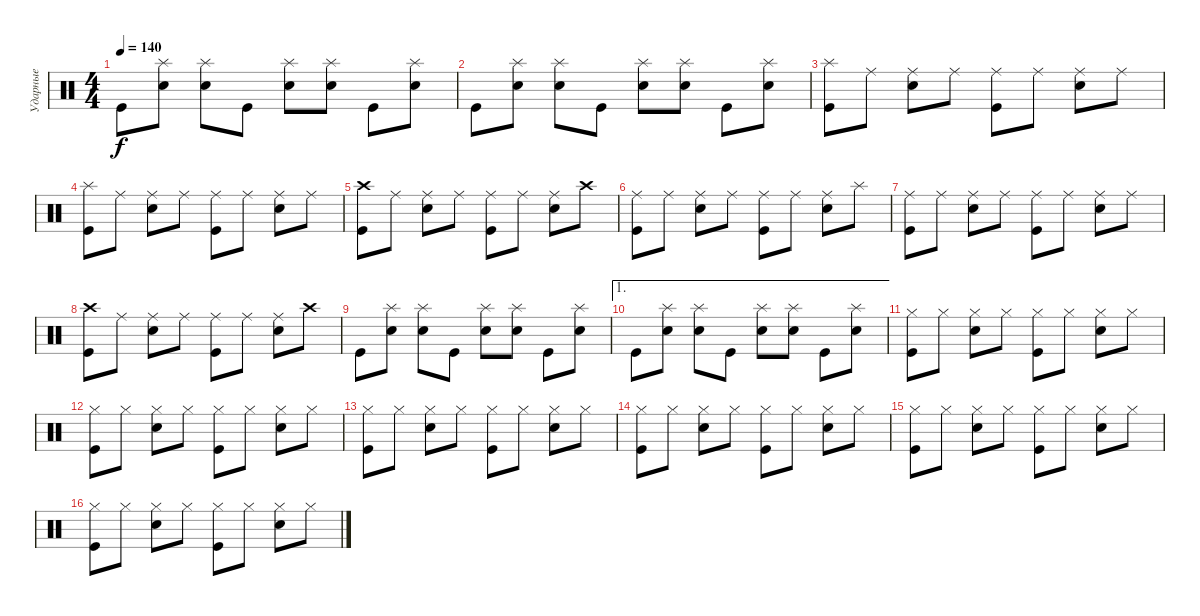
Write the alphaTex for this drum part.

\track ("Ударные" "Ударные") {instrument percussion}
\staff {score}
\articulation defaults
\ts (4 4)
\tempo 140
\clef neutral
\ks c "Kick (hit)".8{dy f}
("Splash (hit)" "Snare (hit) 2").8 ("Splash (hit)" "Snare (hit) 2").8 "Kick (hit)".8 ("Splash (hit)" "Snare (hit) 2").8 ("Splash (hit)" "Snare (hit) 2").8 "Kick (hit)".8 ("Splash (hit)" "Snare (hit) 2").8 |
"Kick (hit)".8 ("Splash (hit)" "Snare (hit) 2").8 ("Splash (hit)" "Snare (hit) 2").8 "Kick (hit)".8 ("Splash (hit)" "Snare (hit) 2").8 ("Splash (hit)" "Snare (hit) 2").8 "Kick (hit)".8 ("Splash (hit)" "Snare (hit) 2").8 |
("Splash (hit)" "Kick (hit)").8 "Ride (middle)".8 ("Ride (middle)" "Snare (hit) 2").8 "Ride (middle)".8 ("Ride (middle)" "Kick (hit)").8 "Ride (middle)".8 ("Ride (middle)" "Snare (hit) 2").8 "Ride (middle)".8 |
("Splash (hit)" "Kick (hit)").8 "Ride (middle)".8 ("Ride (middle)" "Snare (hit) 2").8 "Ride (middle)".8 ("Ride (middle)" "Kick (hit)").8 "Ride (middle)".8 ("Ride (middle)" "Snare (hit) 2").8 "Ride (middle)".8 |
("Crash high (hit)" "Kick (hit)").8 "Ride (middle)".8 ("Ride (middle)" "Snare (hit) 2").8 "Ride (middle)".8 ("Ride (middle)" "Kick (hit)").8 "Ride (middle)".8 ("Ride (middle)" "Snare (hit) 2").8 "Crash high (hit)".8 |
("Ride (middle)" "Kick (hit)").8 "Ride (middle)".8 ("Ride (middle)" "Snare (hit) 2").8 "Ride (middle)".8 ("Ride (middle)" "Kick (hit)").8 "Ride (middle)".8 ("Ride (middle)" "Snare (hit) 2").8 "Splash (hit)".8 |
("Ride (middle)" "Kick (hit)").8 "Ride (middle)".8 ("Ride (middle)" "Snare (hit) 2").8 "Ride (middle)".8 ("Ride (middle)" "Kick (hit)").8 "Ride (middle)".8 ("Ride (middle)" "Snare (hit) 2").8 "Ride (middle)".8 |
("Crash high (hit)" "Kick (hit)").8 "Ride (middle)".8 ("Ride (middle)" "Snare (hit) 2").8 "Ride (middle)".8 ("Ride (middle)" "Kick (hit)").8 "Ride (middle)".8 ("Ride (middle)" "Snare (hit) 2").8 "Crash high (hit)".8 |
"Kick (hit)".8 ("Splash (hit)" "Snare (hit) 2").8 ("Splash (hit)" "Snare (hit) 2").8 "Kick (hit)".8 ("Splash (hit)" "Snare (hit) 2").8 ("Splash (hit)" "Snare (hit) 2").8 "Kick (hit)".8 ("Splash (hit)" "Snare (hit) 2").8 |
\ae 1 "Kick (hit)".8
("Splash (hit)" "Snare (hit) 2").8 ("Splash (hit)" "Snare (hit) 2").8 "Kick (hit)".8 ("Splash (hit)" "Snare (hit) 2").8 ("Splash (hit)" "Snare (hit) 2").8 "Kick (hit)".8 ("Splash (hit)" "Snare (hit) 2").8 |
("Hi-Hat (closed)" "Kick (hit)").8 "Hi-Hat (closed)".8 ("Hi-Hat (closed)" "Snare (hit) 2").8 "Hi-Hat (closed)".8 ("Hi-Hat (closed)" "Kick (hit)").8 "Hi-Hat (closed)".8 ("Hi-Hat (closed)" "Snare (hit) 2").8 "Hi-Hat (closed)".8 |
("Hi-Hat (closed)" "Kick (hit)").8 "Hi-Hat (closed)".8 ("Hi-Hat (closed)" "Snare (hit) 2").8 "Hi-Hat (closed)".8 ("Hi-Hat (closed)" "Kick (hit)").8 "Hi-Hat (closed)".8 ("Hi-Hat (closed)" "Snare (hit) 2").8 "Hi-Hat (closed)".8 |
("Hi-Hat (closed)" "Kick (hit)").8 "Hi-Hat (closed)".8 ("Hi-Hat (closed)" "Snare (hit) 2").8 "Hi-Hat (closed)".8 ("Hi-Hat (closed)" "Kick (hit)").8 "Hi-Hat (closed)".8 ("Hi-Hat (closed)" "Snare (hit) 2").8 "Hi-Hat (closed)".8 |
("Hi-Hat (closed)" "Kick (hit)").8 "Hi-Hat (closed)".8 ("Hi-Hat (closed)" "Snare (hit) 2").8 "Hi-Hat (closed)".8 ("Hi-Hat (closed)" "Kick (hit)").8 "Hi-Hat (closed)".8 ("Hi-Hat (closed)" "Snare (hit) 2").8 "Hi-Hat (closed)".8 |
("Hi-Hat (closed)" "Kick (hit)").8 "Hi-Hat (closed)".8 ("Hi-Hat (closed)" "Snare (hit) 2").8 "Hi-Hat (closed)".8 ("Hi-Hat (closed)" "Kick (hit)").8 "Hi-Hat (closed)".8 ("Hi-Hat (closed)" "Snare (hit) 2").8 "Hi-Hat (closed)".8 |
("Hi-Hat (closed)" "Kick (hit)").8 "Hi-Hat (closed)".8 ("Hi-Hat (closed)" "Snare (hit) 2").8 "Hi-Hat (closed)".8 ("Hi-Hat (closed)" "Kick (hit)").8 "Hi-Hat (closed)".8 ("Hi-Hat (closed)" "Snare (hit) 2").8 "Hi-Hat (closed)".8
